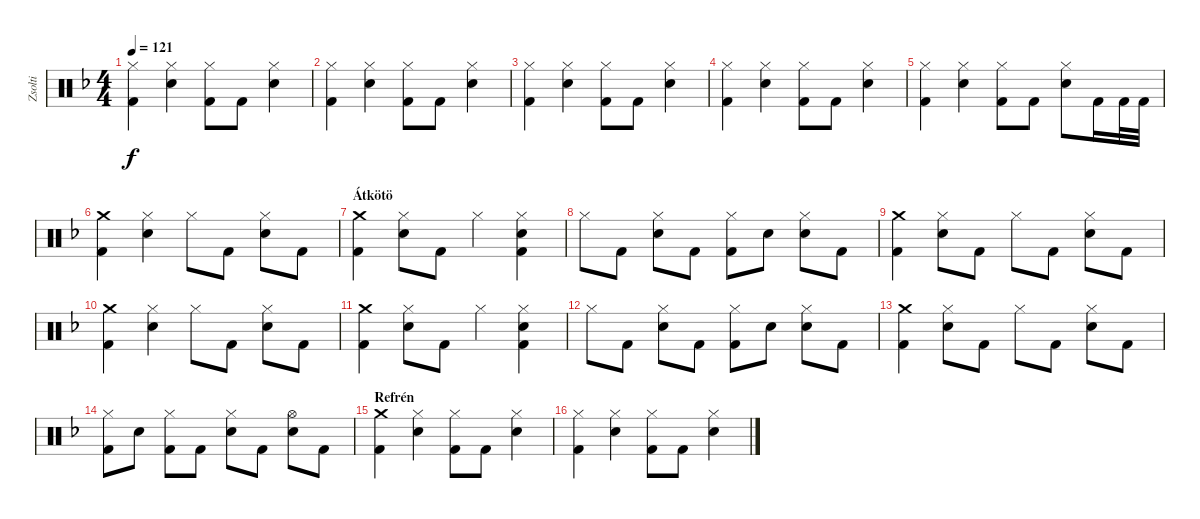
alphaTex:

\track ("Zsolti" "Zsolti") {instrument percussion}
\staff {score}
\articulation defaults
\ts (4 4)
\tempo 121
\clef neutral
\ks dminor
("Hi-Hat (closed)" "Kick (hit) 2").4{dy f} ("Hi-Hat (closed)" "Snare (hit) 2").4 ("Hi-Hat (closed)" "Kick (hit) 2").8 "Kick (hit) 2".8 ("Hi-Hat (closed)" "Snare (hit) 2").4 |
("Hi-Hat (closed)" "Kick (hit) 2").4 ("Hi-Hat (closed)" "Snare (hit) 2").4 ("Hi-Hat (closed)" "Kick (hit) 2").8 "Kick (hit) 2".8 ("Hi-Hat (closed)" "Snare (hit) 2").4 |
("Hi-Hat (closed)" "Kick (hit) 2").4 ("Hi-Hat (closed)" "Snare (hit) 2").4 ("Hi-Hat (closed)" "Kick (hit) 2").8 "Kick (hit) 2".8 ("Hi-Hat (closed)" "Snare (hit) 2").4 |
("Hi-Hat (closed)" "Kick (hit) 2").4 ("Hi-Hat (closed)" "Snare (hit) 2").4 ("Hi-Hat (closed)" "Kick (hit) 2").8 "Kick (hit) 2".8 ("Hi-Hat (closed)" "Snare (hit) 2").4 |
("Hi-Hat (closed)" "Kick (hit) 2").4 ("Hi-Hat (closed)" "Snare (hit) 2").4 ("Hi-Hat (closed)" "Kick (hit) 2").8 "Kick (hit) 2".8 ("Hi-Hat (closed)" "Snare (hit) 2").8 "Kick (hit) 2".16 "Kick (hit) 2".32 "Kick (hit) 2".32 |
("Crash medium (hit)" "Kick (hit) 2").4 ("Hi-Hat (closed)" "Snare (hit) 2").4 "Hi-Hat (closed)".8 "Kick (hit) 2".8 ("Hi-Hat (closed)" "Snare (hit) 2").8 "Kick (hit) 2".8 |
\section ("" "Átkötö")
("Crash medium (hit)" "Kick (hit) 2").4 ("Hi-Hat (closed)" "Snare (hit) 2").8 "Kick (hit) 2".8 "Hi-Hat (closed)".4 ("Hi-Hat (closed)" "Snare (hit) 2" "Kick (hit) 2").4 |
"Hi-Hat (closed)".8 "Kick (hit) 2".8 ("Hi-Hat (closed)" "Snare (hit) 2").8 "Kick (hit) 2".8 ("Hi-Hat (closed)" "Kick (hit) 2").8 "Snare (hit) 2".8 ("Hi-Hat (closed)" "Snare (hit) 2").8 "Kick (hit) 2".8 |
("Crash medium (hit)" "Kick (hit) 2").4 ("Hi-Hat (closed)" "Snare (hit) 2").8 "Kick (hit) 2".8 "Hi-Hat (closed)".8 "Kick (hit) 2".8 ("Hi-Hat (closed)" "Snare (hit) 2").8 "Kick (hit) 2".8 |
("Crash medium (hit)" "Kick (hit) 2").4 ("Hi-Hat (closed)" "Snare (hit) 2").4 "Hi-Hat (closed)".8 "Kick (hit) 2".8 ("Hi-Hat (closed)" "Snare (hit) 2").8 "Kick (hit) 2".8 |
("Crash medium (hit)" "Kick (hit) 2").4 ("Hi-Hat (closed)" "Snare (hit) 2").8 "Kick (hit) 2".8 "Hi-Hat (closed)".4 ("Hi-Hat (closed)" "Snare (hit) 2" "Kick (hit) 2").4 |
"Hi-Hat (closed)".8 "Kick (hit) 2".8 ("Hi-Hat (closed)" "Snare (hit) 2").8 "Kick (hit) 2".8 ("Hi-Hat (closed)" "Kick (hit) 2").8 "Snare (hit) 2".8 ("Hi-Hat (closed)" "Snare (hit) 2").8 "Kick (hit) 2".8 |
("Crash medium (hit)" "Kick (hit) 2").4 ("Hi-Hat (closed)" "Snare (hit) 2").8 "Kick (hit) 2".8 "Hi-Hat (closed)".8 "Kick (hit) 2".8 ("Hi-Hat (closed)" "Snare (hit) 2").8 "Kick (hit) 2".8 |
("Hi-Hat (closed)" "Kick (hit) 2").8 "Snare (hit) 2".8 ("Hi-Hat (closed)" "Kick (hit) 2").8 "Kick (hit) 2".8 ("Hi-Hat (closed)" "Snare (hit) 2").8 "Kick (hit) 2".8 ("Hi-Hat (open)" "Snare (hit) 2").8 "Kick (hit) 2".8 |
\section ("" "Refrén")
("Crash medium (hit)" "Kick (hit) 2").4 ("Hi-Hat (closed)" "Snare (hit) 2").4 ("Hi-Hat (closed)" "Kick (hit) 2").8 "Kick (hit) 2".8 ("Hi-Hat (closed)" "Snare (hit) 2").4 |
("Hi-Hat (closed)" "Kick (hit) 2").4 ("Hi-Hat (closed)" "Snare (hit) 2").4 ("Hi-Hat (closed)" "Kick (hit) 2").8 "Kick (hit) 2".8 ("Hi-Hat (closed)" "Snare (hit) 2").4
